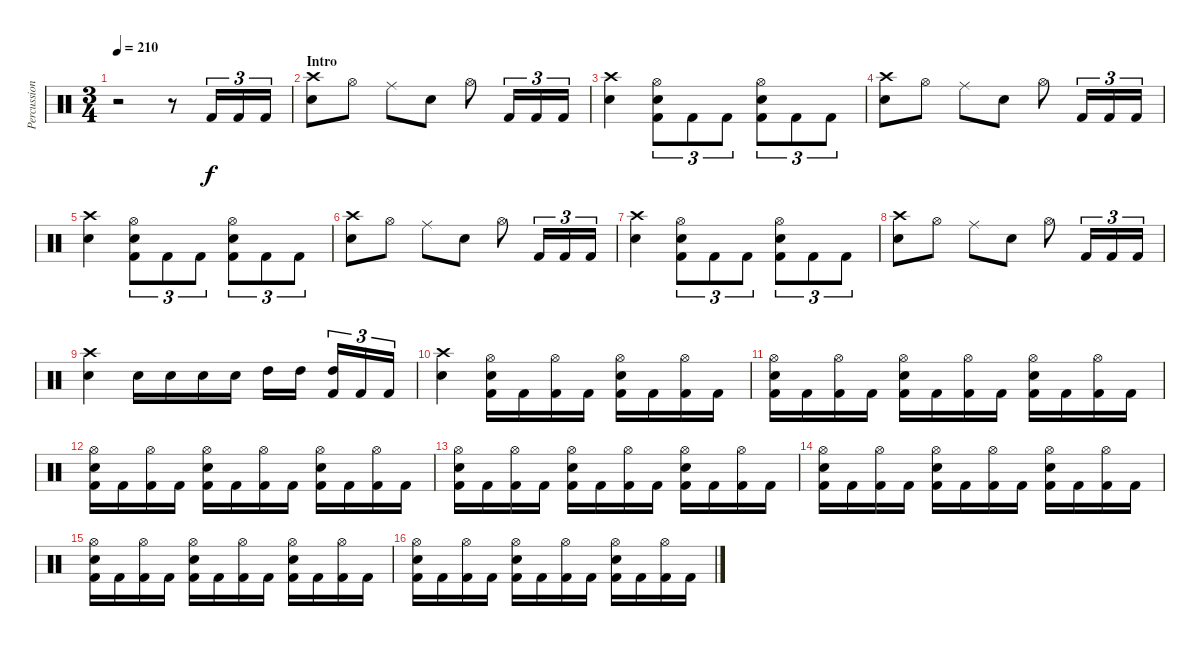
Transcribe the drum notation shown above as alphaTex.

\track ("Percussion" "Percussion") {instrument percussion}
\staff {score}
\articulation defaults
\ts (3 4)
\tempo 210
\clef neutral
\ks c
r.2{dy f} r.8 "Kick (hit) 2".16{tu (3 2)} "Kick (hit) 2".16{tu (3 2)} "Kick (hit) 2".16{tu (3 2)} |
\section ("" "Intro")
("Crash high (hit)" "Electric Snare (hit)").8 "Hi-Hat (open)".8 "Ride (middle)".8 "Electric Snare (hit)".8 "Hi-Hat (open)".8 "Kick (hit) 2".16{tu (3 2)} "Kick (hit) 2".16{tu (3 2)} "Kick (hit) 2".16{tu (3 2)} |
("Crash high (hit)" "Electric Snare (hit)").4 ("Hi-Hat (open)" "Electric Snare (hit)" "Kick (hit) 2").8{tu (3 2)} "Kick (hit) 2".8{tu (3 2)} "Kick (hit) 2".8{tu (3 2)} ("Hi-Hat (open)" "Electric Snare (hit)" "Kick (hit) 2").8{tu (3 2)} "Kick (hit) 2".8{tu (3 2)} "Kick (hit) 2".8{tu (3 2)} |
("Crash high (hit)" "Electric Snare (hit)").8 "Hi-Hat (open)".8 "Ride (middle)".8 "Electric Snare (hit)".8 "Hi-Hat (open)".8 "Kick (hit) 2".16{tu (3 2)} "Kick (hit) 2".16{tu (3 2)} "Kick (hit) 2".16{tu (3 2)} |
("Crash high (hit)" "Electric Snare (hit)").4 ("Hi-Hat (open)" "Electric Snare (hit)" "Kick (hit) 2").8{tu (3 2)} "Kick (hit) 2".8{tu (3 2)} "Kick (hit) 2".8{tu (3 2)} ("Hi-Hat (open)" "Electric Snare (hit)" "Kick (hit) 2").8{tu (3 2)} "Kick (hit) 2".8{tu (3 2)} "Kick (hit) 2".8{tu (3 2)} |
("Crash high (hit)" "Electric Snare (hit)").8 "Hi-Hat (open)".8 "Ride (middle)".8 "Electric Snare (hit)".8 "Hi-Hat (open)".8 "Kick (hit) 2".16{tu (3 2)} "Kick (hit) 2".16{tu (3 2)} "Kick (hit) 2".16{tu (3 2)} |
("Crash high (hit)" "Electric Snare (hit)").4 ("Hi-Hat (open)" "Electric Snare (hit)" "Kick (hit) 2").8{tu (3 2)} "Kick (hit) 2".8{tu (3 2)} "Kick (hit) 2".8{tu (3 2)} ("Hi-Hat (open)" "Electric Snare (hit)" "Kick (hit) 2").8{tu (3 2)} "Kick (hit) 2".8{tu (3 2)} "Kick (hit) 2".8{tu (3 2)} |
("Crash high (hit)" "Electric Snare (hit)").8 "Hi-Hat (open)".8 "Ride (middle)".8 "Electric Snare (hit)".8 "Hi-Hat (open)".8 "Kick (hit) 2".16{tu (3 2)} "Kick (hit) 2".16{tu (3 2)} "Kick (hit) 2".16{tu (3 2)} |
("Crash high (hit)" "Electric Snare (hit)").4 "Electric Snare (hit)".16 "Electric Snare (hit)".16 "Electric Snare (hit)".16 "Electric Snare (hit)".16 "High Tom (hit)".16 "High Tom (hit)".16 ("High Tom (hit)" "Kick (hit) 2").16{tu (3 2)} "Kick (hit) 2".16{tu (3 2)} "Kick (hit) 2".16{tu (3 2)} |
("Crash high (hit)" "Electric Snare (hit)").4 ("Hi-Hat (open)" "Electric Snare (hit)" "Kick (hit) 2").16 "Kick (hit) 2".16 ("Hi-Hat (open)" "Kick (hit) 2").16 "Kick (hit) 2".16 ("Hi-Hat (open)" "Electric Snare (hit)" "Kick (hit) 2").16 "Kick (hit) 2".16 ("Hi-Hat (open)" "Kick (hit) 2").16 "Kick (hit) 2".16 |
("Hi-Hat (open)" "Electric Snare (hit)" "Kick (hit) 2").16 "Kick (hit) 2".16 ("Hi-Hat (open)" "Kick (hit) 2").16 "Kick (hit) 2".16 ("Hi-Hat (open)" "Electric Snare (hit)" "Kick (hit) 2").16 "Kick (hit) 2".16 ("Hi-Hat (open)" "Kick (hit) 2").16 "Kick (hit) 2".16 ("Hi-Hat (open)" "Electric Snare (hit)" "Kick (hit) 2").16 "Kick (hit) 2".16 ("Hi-Hat (open)" "Kick (hit) 2").16 "Kick (hit) 2".16 |
("Hi-Hat (open)" "Electric Snare (hit)" "Kick (hit) 2").16 "Kick (hit) 2".16 ("Hi-Hat (open)" "Kick (hit) 2").16 "Kick (hit) 2".16 ("Hi-Hat (open)" "Electric Snare (hit)" "Kick (hit) 2").16 "Kick (hit) 2".16 ("Hi-Hat (open)" "Kick (hit) 2").16 "Kick (hit) 2".16 ("Hi-Hat (open)" "Electric Snare (hit)" "Kick (hit) 2").16 "Kick (hit) 2".16 ("Hi-Hat (open)" "Kick (hit) 2").16 "Kick (hit) 2".16 |
("Hi-Hat (open)" "Electric Snare (hit)" "Kick (hit) 2").16 "Kick (hit) 2".16 ("Hi-Hat (open)" "Kick (hit) 2").16 "Kick (hit) 2".16 ("Hi-Hat (open)" "Electric Snare (hit)" "Kick (hit) 2").16 "Kick (hit) 2".16 ("Hi-Hat (open)" "Kick (hit) 2").16 "Kick (hit) 2".16 ("Hi-Hat (open)" "Electric Snare (hit)" "Kick (hit) 2").16 "Kick (hit) 2".16 ("Hi-Hat (open)" "Kick (hit) 2").16 "Kick (hit) 2".16 |
("Hi-Hat (open)" "Electric Snare (hit)" "Kick (hit) 2").16 "Kick (hit) 2".16 ("Hi-Hat (open)" "Kick (hit) 2").16 "Kick (hit) 2".16 ("Hi-Hat (open)" "Electric Snare (hit)" "Kick (hit) 2").16 "Kick (hit) 2".16 ("Hi-Hat (open)" "Kick (hit) 2").16 "Kick (hit) 2".16 ("Hi-Hat (open)" "Electric Snare (hit)" "Kick (hit) 2").16 "Kick (hit) 2".16 ("Hi-Hat (open)" "Kick (hit) 2").16 "Kick (hit) 2".16 |
("Hi-Hat (open)" "Electric Snare (hit)" "Kick (hit) 2").16 "Kick (hit) 2".16 ("Hi-Hat (open)" "Kick (hit) 2").16 "Kick (hit) 2".16 ("Hi-Hat (open)" "Electric Snare (hit)" "Kick (hit) 2").16 "Kick (hit) 2".16 ("Hi-Hat (open)" "Kick (hit) 2").16 "Kick (hit) 2".16 ("Hi-Hat (open)" "Electric Snare (hit)" "Kick (hit) 2").16 "Kick (hit) 2".16 ("Hi-Hat (open)" "Kick (hit) 2").16 "Kick (hit) 2".16 |
("Hi-Hat (open)" "Electric Snare (hit)" "Kick (hit) 2").16 "Kick (hit) 2".16 ("Hi-Hat (open)" "Kick (hit) 2").16 "Kick (hit) 2".16 ("Hi-Hat (open)" "Electric Snare (hit)" "Kick (hit) 2").16 "Kick (hit) 2".16 ("Hi-Hat (open)" "Kick (hit) 2").16 "Kick (hit) 2".16 ("Hi-Hat (open)" "Electric Snare (hit)" "Kick (hit) 2").16 "Kick (hit) 2".16 ("Hi-Hat (open)" "Kick (hit) 2").16 "Kick (hit) 2".16
